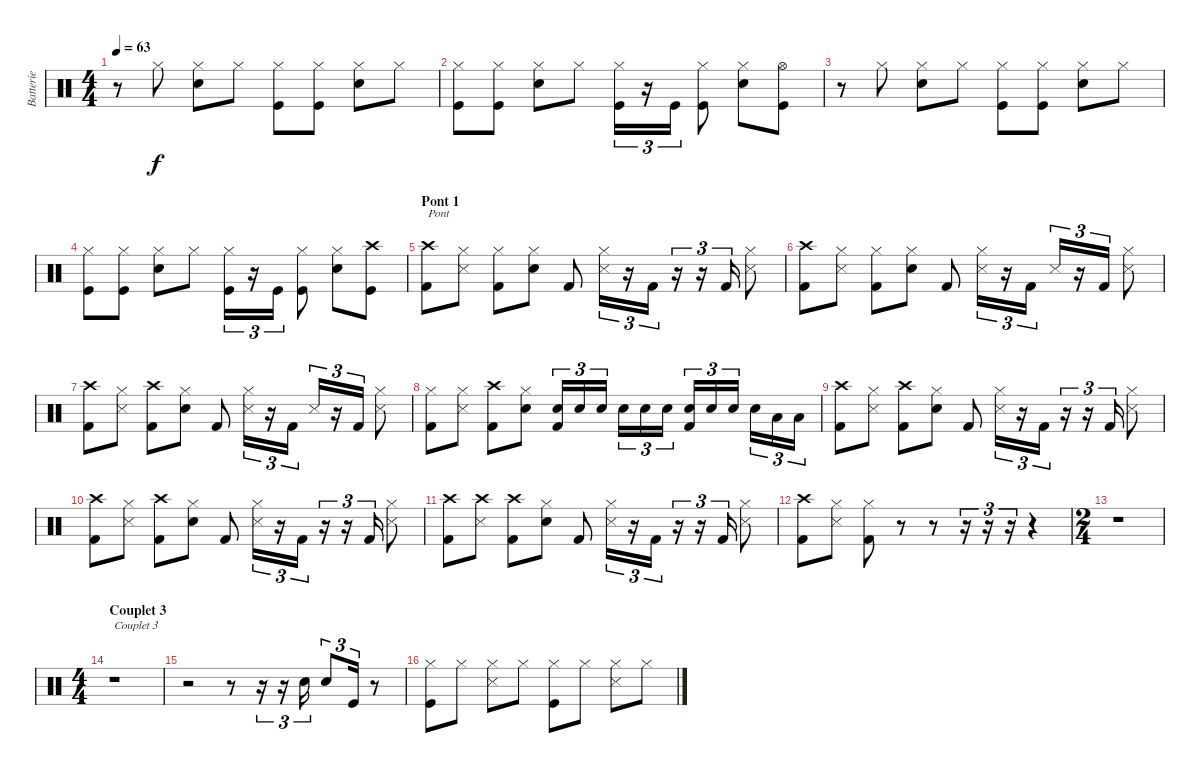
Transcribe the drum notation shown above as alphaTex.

\track ("Batterie" "Batterie") {instrument percussion}
\staff {score}
\articulation defaults
\ts (4 4)
\tempo 63
\clef neutral
\ks c
r.8{dy f} "Hi-Hat (closed)".8 ("Electric Snare (hit)" "Hi-Hat (closed)").8 "Hi-Hat (closed)".8 ("Hi-Hat (closed)" "Kick (hit)").8 ("Hi-Hat (closed)" "Kick (hit)").8 ("Electric Snare (hit)" "Hi-Hat (closed)").8 "Hi-Hat (closed)".8 |
("Hi-Hat (closed)" "Kick (hit)").8 ("Hi-Hat (closed)" "Kick (hit)").8 ("Electric Snare (hit)" "Hi-Hat (closed)").8 "Hi-Hat (closed)".8 ("Hi-Hat (closed)" "Kick (hit)").16{tu (3 2)} r.16{tu (3 2)} "Kick (hit)".16{tu (3 2)} ("Hi-Hat (closed)" "Kick (hit)").8 ("Electric Snare (hit)" "Hi-Hat (closed)").8 ("Hi-Hat (open)" "Kick (hit)").8 |
r.8 "Hi-Hat (closed)".8 ("Electric Snare (hit)" "Hi-Hat (closed)").8 "Hi-Hat (closed)".8 ("Hi-Hat (closed)" "Kick (hit)").8 ("Hi-Hat (closed)" "Kick (hit)").8 ("Electric Snare (hit)" "Hi-Hat (closed)").8 "Hi-Hat (closed)".8 |
("Hi-Hat (closed)" "Kick (hit)").8 ("Hi-Hat (closed)" "Kick (hit)").8 ("Electric Snare (hit)" "Hi-Hat (closed)").8 "Hi-Hat (closed)".8 ("Hi-Hat (closed)" "Kick (hit)").16{tu (3 2)} r.16{tu (3 2)} "Kick (hit)".16{tu (3 2)} ("Hi-Hat (closed)" "Kick (hit)").8 ("Electric Snare (hit)" "Hi-Hat (closed)").8 ("Crash high (hit)" "Kick (hit)").8 |
\section ("" "Pont 1")
("Crash high (hit)" "Kick (hit) 2").8{txt "Pont"} ("Snare (side stick) 3" "Hi-Hat (closed)").8 ("Hi-Hat (closed)" "Kick (hit) 2").8 ("Electric Snare (hit)" "Hi-Hat (closed)").8 "Kick (hit) 2".8 ("Snare (side stick) 3" "Hi-Hat (closed)").16{tu (3 2)} r.16{tu (3 2)} "Kick (hit) 2".16{tu (3 2)} r.16{tu (3 2)} r.16{tu (3 2)} "Kick (hit) 2".16{tu (3 2)} ("Snare (side stick) 3" "Hi-Hat (closed)").8 |
("Crash high (hit)" "Kick (hit) 2").8 ("Snare (side stick) 3" "Hi-Hat (closed)").8 ("Hi-Hat (closed)" "Kick (hit) 2").8 ("Electric Snare (hit)" "Hi-Hat (closed)").8 "Kick (hit) 2".8 ("Snare (side stick) 3" "Hi-Hat (closed)").16{tu (3 2)} r.16{tu (3 2)} "Kick (hit) 2".16{tu (3 2)} "Snare (side stick) 3".16{tu (3 2)} r.16{tu (3 2)} "Kick (hit) 2".16{tu (3 2)} ("Snare (side stick) 3" "Hi-Hat (closed)").8 |
("Crash high (hit)" "Kick (hit) 2").8 ("Snare (side stick) 3" "Hi-Hat (closed)").8 ("Crash high (hit)" "Kick (hit) 2").8 ("Electric Snare (hit)" "Hi-Hat (closed)").8 "Kick (hit) 2".8 ("Snare (side stick) 3" "Hi-Hat (closed)").16{tu (3 2)} r.16{tu (3 2)} "Kick (hit) 2".16{tu (3 2)} "Snare (side stick) 3".16{tu (3 2)} r.16{tu (3 2)} "Kick (hit) 2".16{tu (3 2)} ("Snare (side stick) 3" "Hi-Hat (closed)").8 |
("Hi-Hat (closed)" "Kick (hit) 2").8 ("Snare (side stick) 3" "Hi-Hat (closed)").8 ("Crash high (hit)" "Kick (hit) 2").8 ("Electric Snare (hit)" "Hi-Hat (closed)").8 ("Electric Snare (hit)" "Kick (hit) 2").16{tu (3 2)} "Electric Snare (hit)".16{tu (3 2)} "Electric Snare (hit)".16{tu (3 2)} "Electric Snare (hit)".16{tu (3 2)} "Electric Snare (hit)".16{tu (3 2)} "Electric Snare (hit)".16{tu (3 2)} ("Electric Snare (hit)" "Kick (hit) 2").16{tu (3 2)} "Electric Snare (hit)".16{tu (3 2)} "Electric Snare (hit)".16{tu (3 2)} "Electric Snare (hit)".16{tu (3 2)} "Low Tom (hit)".16{tu (3 2)} "Low Tom (hit)".16{tu (3 2)} |
("Crash high (hit)" "Kick (hit) 2").8 ("Snare (side stick) 3" "Hi-Hat (closed)").8 ("Crash high (hit)" "Kick (hit) 2").8 ("Electric Snare (hit)" "Hi-Hat (closed)").8 "Kick (hit) 2".8 ("Snare (side stick) 3" "Hi-Hat (closed)").16{tu (3 2)} r.16{tu (3 2)} "Kick (hit) 2".16{tu (3 2)} r.16{tu (3 2)} r.16{tu (3 2)} "Kick (hit) 2".16{tu (3 2)} ("Snare (side stick) 3" "Hi-Hat (closed)").8 |
("Crash high (hit)" "Kick (hit) 2").8 ("Snare (side stick) 3" "Hi-Hat (closed)").8 ("Crash high (hit)" "Kick (hit) 2").8 ("Electric Snare (hit)" "Hi-Hat (closed)").8 "Kick (hit) 2".8 ("Snare (side stick) 3" "Hi-Hat (closed)").16{tu (3 2)} r.16{tu (3 2)} "Kick (hit) 2".16{tu (3 2)} r.16{tu (3 2)} r.16{tu (3 2)} "Kick (hit) 2".16{tu (3 2)} ("Snare (side stick) 3" "Hi-Hat (closed)").8 |
("Crash high (hit)" "Kick (hit) 2").8 ("Snare (side stick) 3" "Crash high (hit)").8 ("Crash high (hit)" "Kick (hit) 2").8 ("Electric Snare (hit)" "Hi-Hat (closed)").8 "Kick (hit) 2".8 ("Snare (side stick) 3" "Hi-Hat (closed)").16{tu (3 2)} r.16{tu (3 2)} "Kick (hit) 2".16{tu (3 2)} r.16{tu (3 2)} r.16{tu (3 2)} "Kick (hit) 2".16{tu (3 2)} ("Snare (side stick) 3" "Hi-Hat (closed)").8 |
("Crash high (hit)" "Kick (hit) 2").8 ("Snare (side stick) 3" "Hi-Hat (closed)").8 ("Hi-Hat (closed)" "Kick (hit) 2").8 r.8 r.8 r.16{tu (3 2)} r.16{tu (3 2)} r.16{tu (3 2)} r.4 |
\ts (2 4)
r.1 |
\ts (4 4)
\section ("" "Couplet 3")
r.1{txt "Couplet 3"} |
r.2 r.8 r.16{tu (3 2)} r.16{tu (3 2)} "Electric Snare (hit)".16{tu (3 2)} "Electric Snare (hit)".8{tu (3 2)} "Kick (hit)".16{tu (3 2)} r.8 |
("Hi-Hat (closed)" "Kick (hit)").8 "Hi-Hat (closed)".8 ("Snare (side stick) 3" "Hi-Hat (closed)").8 "Hi-Hat (closed)".8 ("Hi-Hat (closed)" "Kick (hit)").8 "Hi-Hat (closed)".8 ("Snare (side stick) 3" "Hi-Hat (closed)").8 "Hi-Hat (closed)".8
